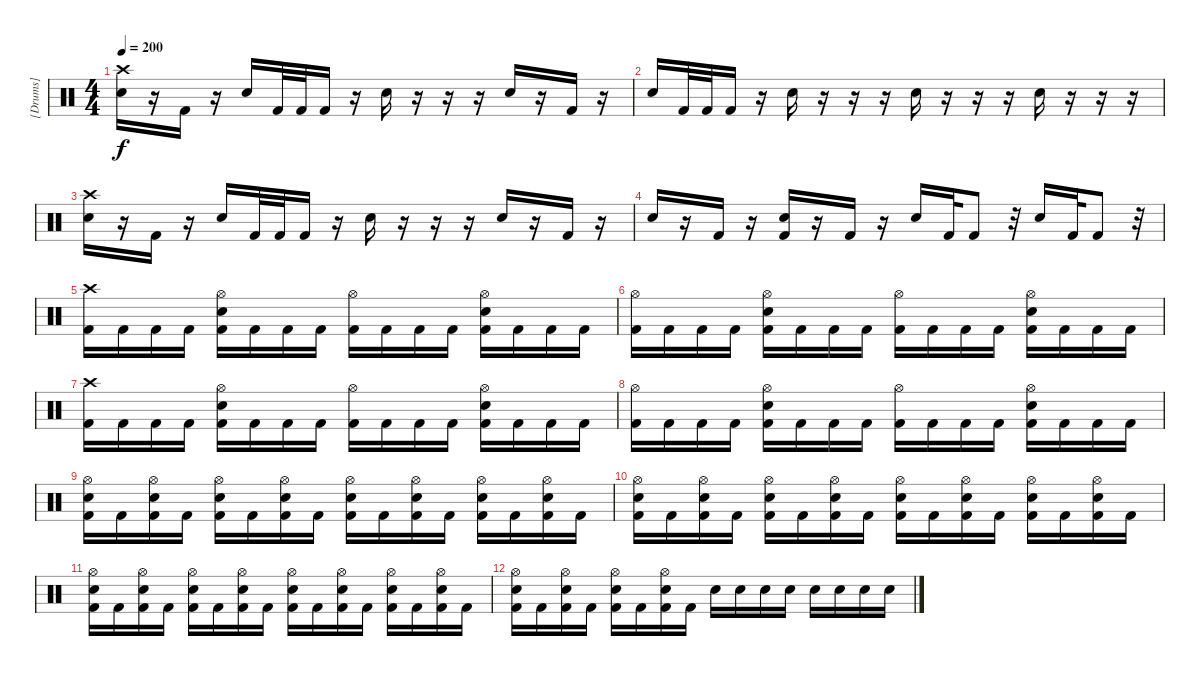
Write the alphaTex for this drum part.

\track ("[Drums]" "[Drums]") {instrument percussion}
\staff {score}
\articulation defaults
\ts (4 4)
\tempo 200
\clef neutral
\ks c
("Crash high (hit)" "Electric Snare (hit)").16{dy f} r.16 "Kick (hit) 2".16 r.16 "Electric Snare (hit)".16 "Kick (hit) 2".32 "Kick (hit) 2".32 "Kick (hit) 2".16 r.16 "Electric Snare (hit)".16 r.16 r.16 r.16 "Electric Snare (hit)".16 r.16 "Kick (hit) 2".16 r.16 |
"Electric Snare (hit)".16 "Kick (hit) 2".32 "Kick (hit) 2".32 "Kick (hit) 2".16 r.16 "Electric Snare (hit)".16 r.16 r.16 r.16 "Electric Snare (hit)".16 r.16 r.16 r.16 "Electric Snare (hit)".16 r.16 r.16 r.16 |
("Crash high (hit)" "Electric Snare (hit)").16 r.16 "Kick (hit) 2".16 r.16 "Electric Snare (hit)".16 "Kick (hit) 2".32 "Kick (hit) 2".32 "Kick (hit) 2".16 r.16 "Electric Snare (hit)".16 r.16 r.16 r.16 "Electric Snare (hit)".16 r.16 "Kick (hit) 2".16 r.16 |
"Electric Snare (hit)".16 r.16 "Kick (hit) 2".16 r.16 ("Electric Snare (hit)" "Kick (hit) 2").16 r.16 "Kick (hit) 2".16 r.16 "Electric Snare (hit)".16 "Kick (hit) 2".32 "Kick (hit) 2".8 r.32 "Electric Snare (hit)".16 "Kick (hit) 2".32 "Kick (hit) 2".8 r.32 |
("Crash high (hit)" "Kick (hit) 2").16 "Kick (hit) 2".16 "Kick (hit) 2".16 "Kick (hit) 2".16 ("Hi-Hat (open)" "Electric Snare (hit)" "Kick (hit) 2").16 "Kick (hit) 2".16 "Kick (hit) 2".16 "Kick (hit) 2".16 ("Hi-Hat (open)" "Kick (hit) 2").16 "Kick (hit) 2".16 "Kick (hit) 2".16 "Kick (hit) 2".16 ("Hi-Hat (open)" "Electric Snare (hit)" "Kick (hit) 2").16 "Kick (hit) 2".16 "Kick (hit) 2".16 "Kick (hit) 2".16 |
("Hi-Hat (open)" "Kick (hit) 2").16 "Kick (hit) 2".16 "Kick (hit) 2".16 "Kick (hit) 2".16 ("Hi-Hat (open)" "Electric Snare (hit)" "Kick (hit) 2").16 "Kick (hit) 2".16 "Kick (hit) 2".16 "Kick (hit) 2".16 ("Hi-Hat (open)" "Kick (hit) 2").16 "Kick (hit) 2".16 "Kick (hit) 2".16 "Kick (hit) 2".16 ("Hi-Hat (open)" "Electric Snare (hit)" "Kick (hit) 2").16 "Kick (hit) 2".16 "Kick (hit) 2".16 "Kick (hit) 2".16 |
("Crash high (hit)" "Kick (hit) 2").16 "Kick (hit) 2".16 "Kick (hit) 2".16 "Kick (hit) 2".16 ("Hi-Hat (open)" "Electric Snare (hit)" "Kick (hit) 2").16 "Kick (hit) 2".16 "Kick (hit) 2".16 "Kick (hit) 2".16 ("Hi-Hat (open)" "Kick (hit) 2").16 "Kick (hit) 2".16 "Kick (hit) 2".16 "Kick (hit) 2".16 ("Hi-Hat (open)" "Electric Snare (hit)" "Kick (hit) 2").16 "Kick (hit) 2".16 "Kick (hit) 2".16 "Kick (hit) 2".16 |
("Hi-Hat (open)" "Kick (hit) 2").16 "Kick (hit) 2".16 "Kick (hit) 2".16 "Kick (hit) 2".16 ("Hi-Hat (open)" "Electric Snare (hit)" "Kick (hit) 2").16 "Kick (hit) 2".16 "Kick (hit) 2".16 "Kick (hit) 2".16 ("Hi-Hat (open)" "Kick (hit) 2").16 "Kick (hit) 2".16 "Kick (hit) 2".16 "Kick (hit) 2".16 ("Hi-Hat (open)" "Electric Snare (hit)" "Kick (hit) 2").16 "Kick (hit) 2".16 "Kick (hit) 2".16 "Kick (hit) 2".16 |
("Hi-Hat (open)" "Electric Snare (hit)" "Kick (hit) 2").16 "Kick (hit) 2".16 ("Hi-Hat (open)" "Electric Snare (hit)" "Kick (hit) 2").16 "Kick (hit) 2".16 ("Hi-Hat (open)" "Electric Snare (hit)" "Kick (hit) 2").16 "Kick (hit) 2".16 ("Hi-Hat (open)" "Electric Snare (hit)" "Kick (hit) 2").16 "Kick (hit) 2".16 ("Hi-Hat (open)" "Electric Snare (hit)" "Kick (hit) 2").16 "Kick (hit) 2".16 ("Hi-Hat (open)" "Electric Snare (hit)" "Kick (hit) 2").16 "Kick (hit) 2".16 ("Hi-Hat (open)" "Electric Snare (hit)" "Kick (hit) 2").16 "Kick (hit) 2".16 ("Hi-Hat (open)" "Electric Snare (hit)" "Kick (hit) 2").16 "Kick (hit) 2".16 |
("Hi-Hat (open)" "Electric Snare (hit)" "Kick (hit) 2").16 "Kick (hit) 2".16 ("Hi-Hat (open)" "Electric Snare (hit)" "Kick (hit) 2").16 "Kick (hit) 2".16 ("Hi-Hat (open)" "Electric Snare (hit)" "Kick (hit) 2").16 "Kick (hit) 2".16 ("Hi-Hat (open)" "Electric Snare (hit)" "Kick (hit) 2").16 "Kick (hit) 2".16 ("Hi-Hat (open)" "Electric Snare (hit)" "Kick (hit) 2").16 "Kick (hit) 2".16 ("Hi-Hat (open)" "Electric Snare (hit)" "Kick (hit) 2").16 "Kick (hit) 2".16 ("Hi-Hat (open)" "Electric Snare (hit)" "Kick (hit) 2").16 "Kick (hit) 2".16 ("Hi-Hat (open)" "Electric Snare (hit)" "Kick (hit) 2").16 "Kick (hit) 2".16 |
("Hi-Hat (open)" "Electric Snare (hit)" "Kick (hit) 2").16 "Kick (hit) 2".16 ("Hi-Hat (open)" "Electric Snare (hit)" "Kick (hit) 2").16 "Kick (hit) 2".16 ("Hi-Hat (open)" "Electric Snare (hit)" "Kick (hit) 2").16 "Kick (hit) 2".16 ("Hi-Hat (open)" "Electric Snare (hit)" "Kick (hit) 2").16 "Kick (hit) 2".16 ("Hi-Hat (open)" "Electric Snare (hit)" "Kick (hit) 2").16 "Kick (hit) 2".16 ("Hi-Hat (open)" "Electric Snare (hit)" "Kick (hit) 2").16 "Kick (hit) 2".16 ("Hi-Hat (open)" "Electric Snare (hit)" "Kick (hit) 2").16 "Kick (hit) 2".16 ("Hi-Hat (open)" "Electric Snare (hit)" "Kick (hit) 2").16 "Kick (hit) 2".16 |
("Hi-Hat (open)" "Electric Snare (hit)" "Kick (hit) 2").16 "Kick (hit) 2".16 ("Hi-Hat (open)" "Electric Snare (hit)" "Kick (hit) 2").16 "Kick (hit) 2".16 ("Hi-Hat (open)" "Electric Snare (hit)" "Kick (hit) 2").16 "Kick (hit) 2".16 ("Hi-Hat (open)" "Electric Snare (hit)" "Kick (hit) 2").16 "Kick (hit) 2".16 "Electric Snare (hit)".16 "Electric Snare (hit)".16 "Electric Snare (hit)".16 "Electric Snare (hit)".16 "Electric Snare (hit)".16 "Electric Snare (hit)".16 "Electric Snare (hit)".16 "Electric Snare (hit)".16
